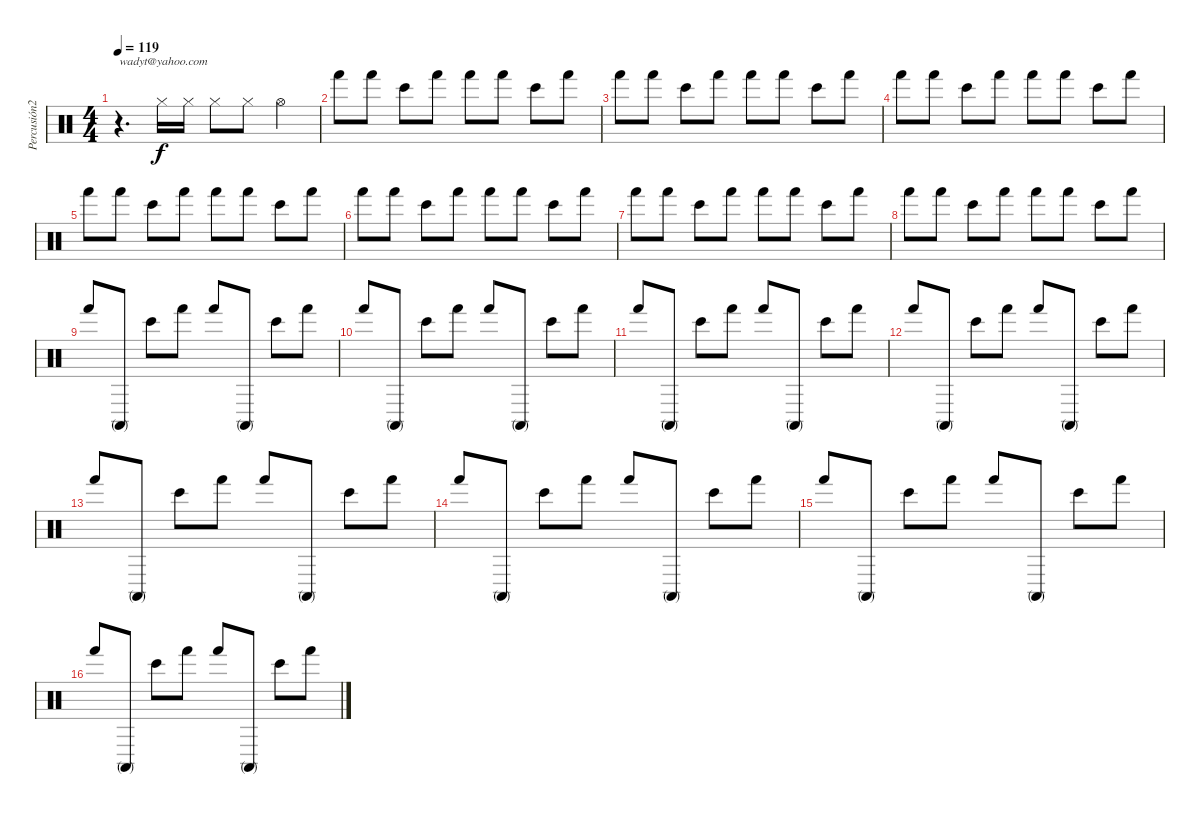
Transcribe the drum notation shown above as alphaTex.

\track ("Percusión2" "Percusión2") {instrument percussion}
\staff {score}
\articulation defaults
\ts (4 4)
\tempo 119
\clef neutral
\ks c
r.4{d txt "wadyt@yahoo.com" dy f} "Hi-Hat (closed)".16 "Hi-Hat (closed)".16 "Hi-Hat (closed)".8 "Hi-Hat (closed)".8 "Hi-Hat (open)".4 |
"Hand (hit)".8 "Hand (hit)".8 "Bongo High (hit)".8 "Hand (hit)".8 "Hand (hit)".8 "Hand (hit)".8 "Bongo High (hit)".8 "Hand (hit)".8 |
"Hand (hit)".8 "Hand (hit)".8 "Bongo High (hit)".8 "Hand (hit)".8 "Hand (hit)".8 "Hand (hit)".8 "Bongo High (hit)".8 "Hand (hit)".8 |
"Hand (hit)".8 "Hand (hit)".8 "Bongo High (hit)".8 "Hand (hit)".8 "Hand (hit)".8 "Hand (hit)".8 "Bongo High (hit)".8 "Hand (hit)".8 |
"Hand (hit)".8 "Hand (hit)".8 "Bongo High (hit)".8 "Hand (hit)".8 "Hand (hit)".8 "Hand (hit)".8 "Bongo High (hit)".8 "Hand (hit)".8 |
"Hand (hit)".8 "Hand (hit)".8 "Bongo High (hit)".8 "Hand (hit)".8 "Hand (hit)".8 "Hand (hit)".8 "Bongo High (hit)".8 "Hand (hit)".8 |
"Hand (hit)".8 "Hand (hit)".8 "Bongo High (hit)".8 "Hand (hit)".8 "Hand (hit)".8 "Hand (hit)".8 "Bongo High (hit)".8 "Hand (hit)".8 |
"Hand (hit)".8 "Hand (hit)".8 "Bongo High (hit)".8 "Hand (hit)".8 "Hand (hit)".8 "Hand (hit)".8 "Bongo High (hit)".8 "Hand (hit)".8 |
"Hand (hit)".8 "Conga high (mute)".8 "Bongo High (hit)".8 "Hand (hit)".8 "Hand (hit)".8 "Conga high (mute)".8 "Bongo High (hit)".8 "Hand (hit)".8 |
"Hand (hit)".8 "Conga high (mute)".8 "Bongo High (hit)".8 "Hand (hit)".8 "Hand (hit)".8 "Conga high (mute)".8 "Bongo High (hit)".8 "Hand (hit)".8 |
"Hand (hit)".8 "Conga high (mute)".8 "Bongo High (hit)".8 "Hand (hit)".8 "Hand (hit)".8 "Conga high (mute)".8 "Bongo High (hit)".8 "Hand (hit)".8 |
"Hand (hit)".8 "Conga high (mute)".8 "Bongo High (hit)".8 "Hand (hit)".8 "Hand (hit)".8 "Conga high (mute)".8 "Bongo High (hit)".8 "Hand (hit)".8 |
"Hand (hit)".8 "Conga high (mute)".8 "Bongo High (hit)".8 "Hand (hit)".8 "Hand (hit)".8 "Conga high (mute)".8 "Bongo High (hit)".8 "Hand (hit)".8 |
"Hand (hit)".8 "Conga high (mute)".8 "Bongo High (hit)".8 "Hand (hit)".8 "Hand (hit)".8 "Conga high (mute)".8 "Bongo High (hit)".8 "Hand (hit)".8 |
"Hand (hit)".8 "Conga high (mute)".8 "Bongo High (hit)".8 "Hand (hit)".8 "Hand (hit)".8 "Conga high (mute)".8 "Bongo High (hit)".8 "Hand (hit)".8 |
"Hand (hit)".8 "Conga high (mute)".8 "Bongo High (hit)".8 "Hand (hit)".8 "Hand (hit)".8 "Conga high (mute)".8 "Bongo High (hit)".8 "Hand (hit)".8
